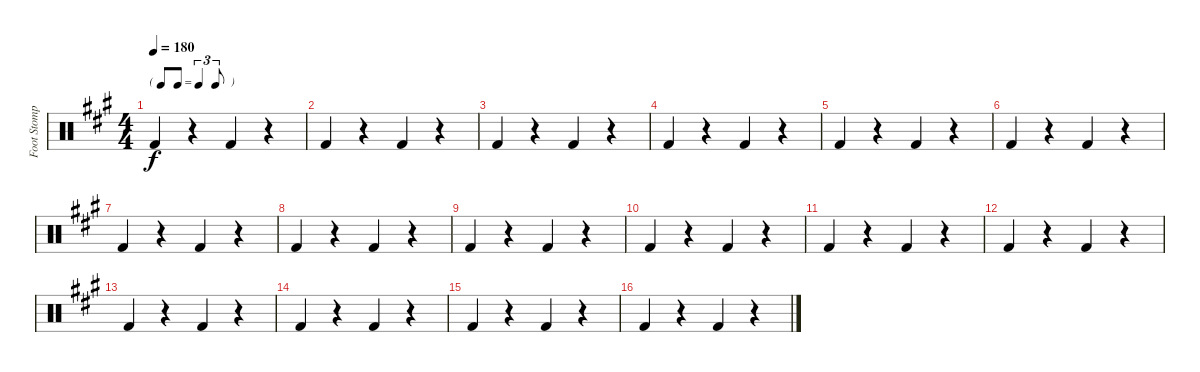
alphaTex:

\track ("Foot Stomp" "Foot Stomp") {instrument percussion}
\staff {score}
\articulation defaults
\ts (4 4)
\tf triplet8th
\tempo 180
\clef neutral
\ks a "Kick (hit) 2".4{dy f}
r.4 "Kick (hit) 2".4 r.4 |
"Kick (hit) 2".4 r.4 "Kick (hit) 2".4 r.4 |
"Kick (hit) 2".4 r.4 "Kick (hit) 2".4 r.4 |
"Kick (hit) 2".4 r.4 "Kick (hit) 2".4 r.4 |
"Kick (hit) 2".4 r.4 "Kick (hit) 2".4 r.4 |
"Kick (hit) 2".4 r.4 "Kick (hit) 2".4 r.4 |
"Kick (hit) 2".4 r.4 "Kick (hit) 2".4 r.4 |
"Kick (hit) 2".4 r.4 "Kick (hit) 2".4 r.4 |
"Kick (hit) 2".4 r.4 "Kick (hit) 2".4 r.4 |
"Kick (hit) 2".4 r.4 "Kick (hit) 2".4 r.4 |
"Kick (hit) 2".4 r.4 "Kick (hit) 2".4 r.4 |
"Kick (hit) 2".4 r.4 "Kick (hit) 2".4 r.4 |
"Kick (hit) 2".4 r.4 "Kick (hit) 2".4 r.4 |
"Kick (hit) 2".4 r.4 "Kick (hit) 2".4 r.4 |
"Kick (hit) 2".4 r.4 "Kick (hit) 2".4 r.4 |
"Kick (hit) 2".4 r.4 "Kick (hit) 2".4 r.4
